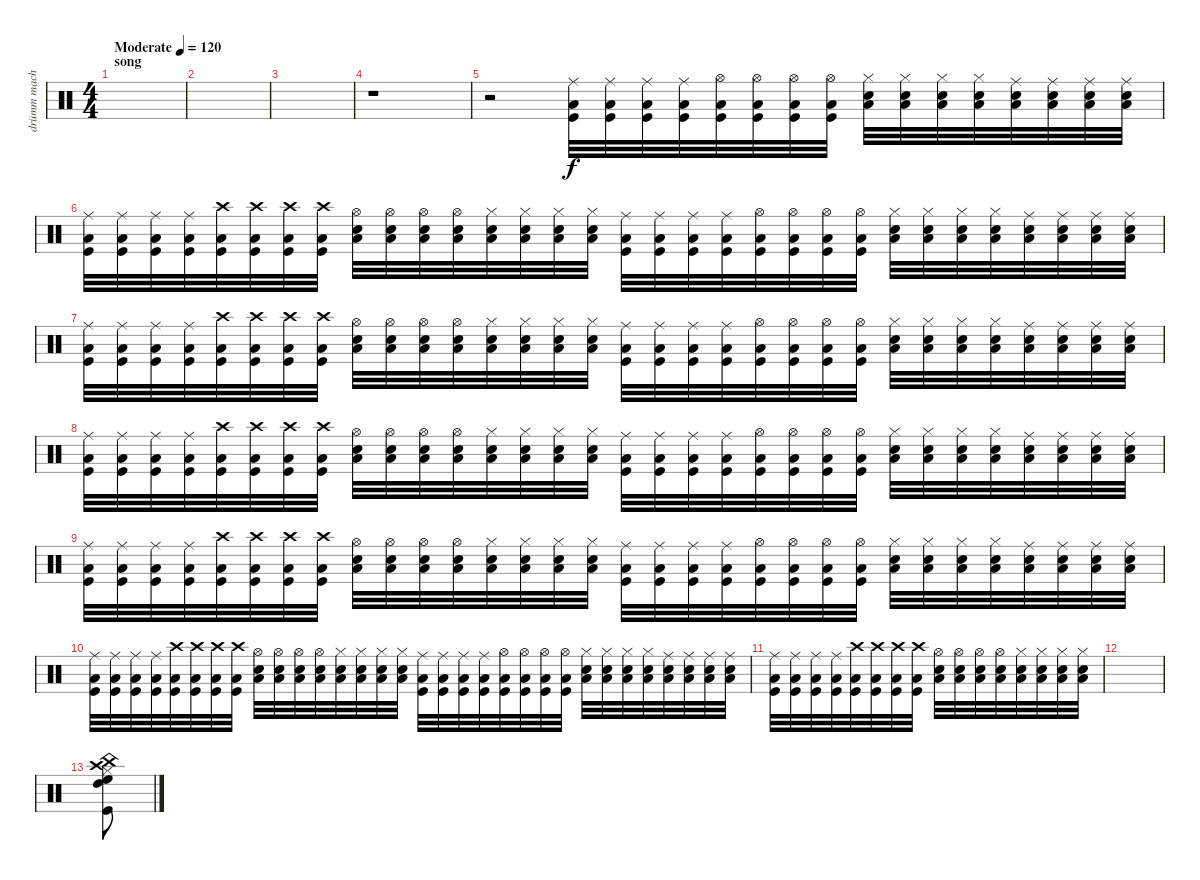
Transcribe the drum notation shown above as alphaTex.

\track ("drümm machine!" "drümm mach") {instrument percussion}
\staff {score}
\articulation defaults
\ts (4 4)
\section ("" "song")
\tempo (120 "Moderate")
\clef neutral
\ks c
|
|
|
r.1 |
r.2 ("Ride (middle)" "Kick (hit)" "Low Floor Tom (hit)").32 ("Ride (middle)" "Kick (hit)" "Low Floor Tom (hit)").32 ("Ride (middle)" "Kick (hit)" "Low Floor Tom (hit)").32 ("Ride (middle)" "Kick (hit)" "Low Floor Tom (hit)").32 ("Hi-Hat (open)" "Kick (hit)" "Low Floor Tom (hit)").32 ("Hi-Hat (open)" "Kick (hit)" "Low Floor Tom (hit)").32 ("Hi-Hat (open)" "Kick (hit)" "Low Floor Tom (hit)").32 ("Hi-Hat (open)" "Kick (hit)" "Low Floor Tom (hit)").32 ("Hi-Hat (closed)" "Snare (hit) 2" "Low Floor Tom (hit)").32 ("Hi-Hat (closed)" "Snare (hit) 2" "Low Floor Tom (hit)").32 ("Hi-Hat (closed)" "Snare (hit) 2" "Low Floor Tom (hit)").32 ("Hi-Hat (closed)" "Snare (hit) 2" "Low Floor Tom (hit)").32 ("Ride (middle)" "Snare (hit) 2" "Low Floor Tom (hit)").32 ("Ride (middle)" "Snare (hit) 2" "Low Floor Tom (hit)").32 ("Ride (middle)" "Snare (hit) 2" "Low Floor Tom (hit)").32 ("Ride (middle)" "Snare (hit) 2" "Low Floor Tom (hit)").32 |
("Ride (middle)" "Kick (hit)" "Low Floor Tom (hit)").32 ("Ride (middle)" "Kick (hit)" "Low Floor Tom (hit)").32 ("Ride (middle)" "Kick (hit)" "Low Floor Tom (hit)").32 ("Ride (middle)" "Kick (hit)" "Low Floor Tom (hit)").32 ("Crash high (hit)" "Kick (hit)" "Low Floor Tom (hit)").32 ("Crash high (hit)" "Kick (hit)" "Low Floor Tom (hit)").32 ("Crash high (hit)" "Kick (hit)" "Low Floor Tom (hit)").32 ("Crash high (hit)" "Kick (hit)" "Low Floor Tom (hit)").32 ("Hi-Hat (open)" "Snare (hit) 2" "Low Floor Tom (hit)").32 ("Hi-Hat (open)" "Snare (hit) 2" "Low Floor Tom (hit)").32 ("Hi-Hat (open)" "Snare (hit) 2" "Low Floor Tom (hit)").32 ("Hi-Hat (open)" "Snare (hit) 2" "Low Floor Tom (hit)").32 ("Hi-Hat (closed)" "Snare (hit) 2" "Low Floor Tom (hit)").32 ("Hi-Hat (closed)" "Snare (hit) 2" "Low Floor Tom (hit)").32 ("Hi-Hat (closed)" "Snare (hit) 2" "Low Floor Tom (hit)").32 ("Hi-Hat (closed)" "Snare (hit) 2" "Low Floor Tom (hit)").32 ("Ride (middle)" "Kick (hit)" "Low Floor Tom (hit)").32 ("Ride (middle)" "Kick (hit)" "Low Floor Tom (hit)").32 ("Ride (middle)" "Kick (hit)" "Low Floor Tom (hit)").32 ("Ride (middle)" "Kick (hit)" "Low Floor Tom (hit)").32 ("Hi-Hat (open)" "Kick (hit)" "Low Floor Tom (hit)").32 ("Hi-Hat (open)" "Kick (hit)" "Low Floor Tom (hit)").32 ("Hi-Hat (open)" "Kick (hit)" "Low Floor Tom (hit)").32 ("Hi-Hat (open)" "Kick (hit)" "Low Floor Tom (hit)").32 ("Hi-Hat (closed)" "Snare (hit) 2" "Low Floor Tom (hit)").32 ("Hi-Hat (closed)" "Snare (hit) 2" "Low Floor Tom (hit)").32 ("Hi-Hat (closed)" "Snare (hit) 2" "Low Floor Tom (hit)").32 ("Hi-Hat (closed)" "Snare (hit) 2" "Low Floor Tom (hit)").32 ("Ride (middle)" "Snare (hit) 2" "Low Floor Tom (hit)").32 ("Ride (middle)" "Snare (hit) 2" "Low Floor Tom (hit)").32 ("Ride (middle)" "Snare (hit) 2" "Low Floor Tom (hit)").32 ("Ride (middle)" "Snare (hit) 2" "Low Floor Tom (hit)").32 |
("Ride (middle)" "Kick (hit)" "Low Floor Tom (hit)").32 ("Ride (middle)" "Kick (hit)" "Low Floor Tom (hit)").32 ("Ride (middle)" "Kick (hit)" "Low Floor Tom (hit)").32 ("Ride (middle)" "Kick (hit)" "Low Floor Tom (hit)").32 ("Crash high (hit)" "Kick (hit)" "Low Floor Tom (hit)").32 ("Crash high (hit)" "Kick (hit)" "Low Floor Tom (hit)").32 ("Crash high (hit)" "Kick (hit)" "Low Floor Tom (hit)").32 ("Crash high (hit)" "Kick (hit)" "Low Floor Tom (hit)").32 ("Hi-Hat (open)" "Snare (hit) 2" "Low Floor Tom (hit)").32 ("Hi-Hat (open)" "Snare (hit) 2" "Low Floor Tom (hit)").32 ("Hi-Hat (open)" "Snare (hit) 2" "Low Floor Tom (hit)").32 ("Hi-Hat (open)" "Snare (hit) 2" "Low Floor Tom (hit)").32 ("Hi-Hat (closed)" "Snare (hit) 2" "Low Floor Tom (hit)").32 ("Hi-Hat (closed)" "Snare (hit) 2" "Low Floor Tom (hit)").32 ("Hi-Hat (closed)" "Snare (hit) 2" "Low Floor Tom (hit)").32 ("Hi-Hat (closed)" "Snare (hit) 2" "Low Floor Tom (hit)").32 ("Ride (middle)" "Kick (hit)" "Low Floor Tom (hit)").32 ("Ride (middle)" "Kick (hit)" "Low Floor Tom (hit)").32 ("Ride (middle)" "Kick (hit)" "Low Floor Tom (hit)").32 ("Ride (middle)" "Kick (hit)" "Low Floor Tom (hit)").32 ("Hi-Hat (open)" "Kick (hit)" "Low Floor Tom (hit)").32 ("Hi-Hat (open)" "Kick (hit)" "Low Floor Tom (hit)").32 ("Hi-Hat (open)" "Kick (hit)" "Low Floor Tom (hit)").32 ("Hi-Hat (open)" "Kick (hit)" "Low Floor Tom (hit)").32 ("Hi-Hat (closed)" "Snare (hit) 2" "Low Floor Tom (hit)").32 ("Hi-Hat (closed)" "Snare (hit) 2" "Low Floor Tom (hit)").32 ("Hi-Hat (closed)" "Snare (hit) 2" "Low Floor Tom (hit)").32 ("Hi-Hat (closed)" "Snare (hit) 2" "Low Floor Tom (hit)").32 ("Ride (middle)" "Snare (hit) 2" "Low Floor Tom (hit)").32 ("Ride (middle)" "Snare (hit) 2" "Low Floor Tom (hit)").32 ("Ride (middle)" "Snare (hit) 2" "Low Floor Tom (hit)").32 ("Ride (middle)" "Snare (hit) 2" "Low Floor Tom (hit)").32 |
("Ride (middle)" "Kick (hit)" "Low Floor Tom (hit)").32 ("Ride (middle)" "Kick (hit)" "Low Floor Tom (hit)").32 ("Ride (middle)" "Kick (hit)" "Low Floor Tom (hit)").32 ("Ride (middle)" "Kick (hit)" "Low Floor Tom (hit)").32 ("Crash high (hit)" "Kick (hit)" "Low Floor Tom (hit)").32 ("Crash high (hit)" "Kick (hit)" "Low Floor Tom (hit)").32 ("Crash high (hit)" "Kick (hit)" "Low Floor Tom (hit)").32 ("Crash high (hit)" "Kick (hit)" "Low Floor Tom (hit)").32 ("Hi-Hat (open)" "Snare (hit) 2" "Low Floor Tom (hit)").32 ("Hi-Hat (open)" "Snare (hit) 2" "Low Floor Tom (hit)").32 ("Hi-Hat (open)" "Snare (hit) 2" "Low Floor Tom (hit)").32 ("Hi-Hat (open)" "Snare (hit) 2" "Low Floor Tom (hit)").32 ("Hi-Hat (closed)" "Snare (hit) 2" "Low Floor Tom (hit)").32 ("Hi-Hat (closed)" "Snare (hit) 2" "Low Floor Tom (hit)").32 ("Hi-Hat (closed)" "Snare (hit) 2" "Low Floor Tom (hit)").32 ("Hi-Hat (closed)" "Snare (hit) 2" "Low Floor Tom (hit)").32 ("Ride (middle)" "Kick (hit)" "Low Floor Tom (hit)").32 ("Ride (middle)" "Kick (hit)" "Low Floor Tom (hit)").32 ("Ride (middle)" "Kick (hit)" "Low Floor Tom (hit)").32 ("Ride (middle)" "Kick (hit)" "Low Floor Tom (hit)").32 ("Hi-Hat (open)" "Kick (hit)" "Low Floor Tom (hit)").32 ("Hi-Hat (open)" "Kick (hit)" "Low Floor Tom (hit)").32 ("Hi-Hat (open)" "Kick (hit)" "Low Floor Tom (hit)").32 ("Hi-Hat (open)" "Kick (hit)" "Low Floor Tom (hit)").32 ("Hi-Hat (closed)" "Snare (hit) 2" "Low Floor Tom (hit)").32 ("Hi-Hat (closed)" "Snare (hit) 2" "Low Floor Tom (hit)").32 ("Hi-Hat (closed)" "Snare (hit) 2" "Low Floor Tom (hit)").32 ("Hi-Hat (closed)" "Snare (hit) 2" "Low Floor Tom (hit)").32 ("Ride (middle)" "Snare (hit) 2" "Low Floor Tom (hit)").32 ("Ride (middle)" "Snare (hit) 2" "Low Floor Tom (hit)").32 ("Ride (middle)" "Snare (hit) 2" "Low Floor Tom (hit)").32 ("Ride (middle)" "Snare (hit) 2" "Low Floor Tom (hit)").32 |
("Ride (middle)" "Kick (hit)" "Low Floor Tom (hit)").32 ("Ride (middle)" "Kick (hit)" "Low Floor Tom (hit)").32 ("Ride (middle)" "Kick (hit)" "Low Floor Tom (hit)").32 ("Ride (middle)" "Kick (hit)" "Low Floor Tom (hit)").32 ("Crash high (hit)" "Kick (hit)" "Low Floor Tom (hit)").32 ("Crash high (hit)" "Kick (hit)" "Low Floor Tom (hit)").32 ("Crash high (hit)" "Kick (hit)" "Low Floor Tom (hit)").32 ("Crash high (hit)" "Kick (hit)" "Low Floor Tom (hit)").32 ("Hi-Hat (open)" "Snare (hit) 2" "Low Floor Tom (hit)").32 ("Hi-Hat (open)" "Snare (hit) 2" "Low Floor Tom (hit)").32 ("Hi-Hat (open)" "Snare (hit) 2" "Low Floor Tom (hit)").32 ("Hi-Hat (open)" "Snare (hit) 2" "Low Floor Tom (hit)").32 ("Hi-Hat (closed)" "Snare (hit) 2" "Low Floor Tom (hit)").32 ("Hi-Hat (closed)" "Snare (hit) 2" "Low Floor Tom (hit)").32 ("Hi-Hat (closed)" "Snare (hit) 2" "Low Floor Tom (hit)").32 ("Hi-Hat (closed)" "Snare (hit) 2" "Low Floor Tom (hit)").32 ("Ride (middle)" "Kick (hit)" "Low Floor Tom (hit)").32 ("Ride (middle)" "Kick (hit)" "Low Floor Tom (hit)").32 ("Ride (middle)" "Kick (hit)" "Low Floor Tom (hit)").32 ("Ride (middle)" "Kick (hit)" "Low Floor Tom (hit)").32 ("Hi-Hat (open)" "Kick (hit)" "Low Floor Tom (hit)").32 ("Hi-Hat (open)" "Kick (hit)" "Low Floor Tom (hit)").32 ("Hi-Hat (open)" "Kick (hit)" "Low Floor Tom (hit)").32 ("Hi-Hat (open)" "Kick (hit)" "Low Floor Tom (hit)").32 ("Hi-Hat (closed)" "Snare (hit) 2" "Low Floor Tom (hit)").32 ("Hi-Hat (closed)" "Snare (hit) 2" "Low Floor Tom (hit)").32 ("Hi-Hat (closed)" "Snare (hit) 2" "Low Floor Tom (hit)").32 ("Hi-Hat (closed)" "Snare (hit) 2" "Low Floor Tom (hit)").32 ("Ride (middle)" "Snare (hit) 2" "Low Floor Tom (hit)").32 ("Ride (middle)" "Snare (hit) 2" "Low Floor Tom (hit)").32 ("Ride (middle)" "Snare (hit) 2" "Low Floor Tom (hit)").32 ("Ride (middle)" "Snare (hit) 2" "Low Floor Tom (hit)").32 |
("Ride (middle)" "Kick (hit)" "Low Floor Tom (hit)").32 ("Ride (middle)" "Kick (hit)" "Low Floor Tom (hit)").32 ("Ride (middle)" "Kick (hit)" "Low Floor Tom (hit)").32 ("Ride (middle)" "Kick (hit)" "Low Floor Tom (hit)").32 ("Crash high (hit)" "Kick (hit)" "Low Floor Tom (hit)").32 ("Crash high (hit)" "Kick (hit)" "Low Floor Tom (hit)").32 ("Crash high (hit)" "Kick (hit)" "Low Floor Tom (hit)").32 ("Crash high (hit)" "Kick (hit)" "Low Floor Tom (hit)").32 ("Hi-Hat (open)" "Snare (hit) 2" "Low Floor Tom (hit)").32 ("Hi-Hat (open)" "Snare (hit) 2" "Low Floor Tom (hit)").32 ("Hi-Hat (open)" "Snare (hit) 2" "Low Floor Tom (hit)").32 ("Hi-Hat (open)" "Snare (hit) 2" "Low Floor Tom (hit)").32 ("Hi-Hat (closed)" "Snare (hit) 2" "Low Floor Tom (hit)").32 ("Hi-Hat (closed)" "Snare (hit) 2" "Low Floor Tom (hit)").32 ("Hi-Hat (closed)" "Snare (hit) 2" "Low Floor Tom (hit)").32 ("Hi-Hat (closed)" "Snare (hit) 2" "Low Floor Tom (hit)").32 ("Ride (middle)" "Kick (hit)" "Low Floor Tom (hit)").32 ("Ride (middle)" "Kick (hit)" "Low Floor Tom (hit)").32 ("Ride (middle)" "Kick (hit)" "Low Floor Tom (hit)").32 ("Ride (middle)" "Kick (hit)" "Low Floor Tom (hit)").32 ("Hi-Hat (open)" "Kick (hit)" "Low Floor Tom (hit)").32 ("Hi-Hat (open)" "Kick (hit)" "Low Floor Tom (hit)").32 ("Hi-Hat (open)" "Kick (hit)" "Low Floor Tom (hit)").32 ("Hi-Hat (open)" "Kick (hit)" "Low Floor Tom (hit)").32 ("Hi-Hat (closed)" "Snare (hit) 2" "Low Floor Tom (hit)").32 ("Hi-Hat (closed)" "Snare (hit) 2" "Low Floor Tom (hit)").32 ("Hi-Hat (closed)" "Snare (hit) 2" "Low Floor Tom (hit)").32 ("Hi-Hat (closed)" "Snare (hit) 2" "Low Floor Tom (hit)").32 ("Ride (middle)" "Snare (hit) 2" "Low Floor Tom (hit)").32 ("Ride (middle)" "Snare (hit) 2" "Low Floor Tom (hit)").32 ("Ride (middle)" "Snare (hit) 2" "Low Floor Tom (hit)").32 ("Ride (middle)" "Snare (hit) 2" "Low Floor Tom (hit)").32 |
("Ride (middle)" "Kick (hit)" "Low Floor Tom (hit)").32 ("Ride (middle)" "Kick (hit)" "Low Floor Tom (hit)").32 ("Ride (middle)" "Kick (hit)" "Low Floor Tom (hit)").32 ("Ride (middle)" "Kick (hit)" "Low Floor Tom (hit)").32 ("Crash high (hit)" "Kick (hit)" "Low Floor Tom (hit)").32 ("Crash high (hit)" "Kick (hit)" "Low Floor Tom (hit)").32 ("Crash high (hit)" "Kick (hit)" "Low Floor Tom (hit)").32 ("Crash high (hit)" "Kick (hit)" "Low Floor Tom (hit)").32 ("Hi-Hat (open)" "Snare (hit) 2" "Low Floor Tom (hit)").32 ("Hi-Hat (open)" "Snare (hit) 2" "Low Floor Tom (hit)").32 ("Hi-Hat (open)" "Snare (hit) 2" "Low Floor Tom (hit)").32 ("Hi-Hat (open)" "Snare (hit) 2" "Low Floor Tom (hit)").32 ("Hi-Hat (closed)" "Snare (hit) 2" "Low Floor Tom (hit)").32 ("Hi-Hat (closed)" "Snare (hit) 2" "Low Floor Tom (hit)").32 ("Hi-Hat (closed)" "Snare (hit) 2" "Low Floor Tom (hit)").32 ("Hi-Hat (closed)" "Snare (hit) 2" "Low Floor Tom (hit)").32 |
|
("Kick (hit)" "High Tom (hit)" "High Floor Tom (hit)" "China (hit)" "Crash high (hit)" "Hi-Hat (closed)").8
